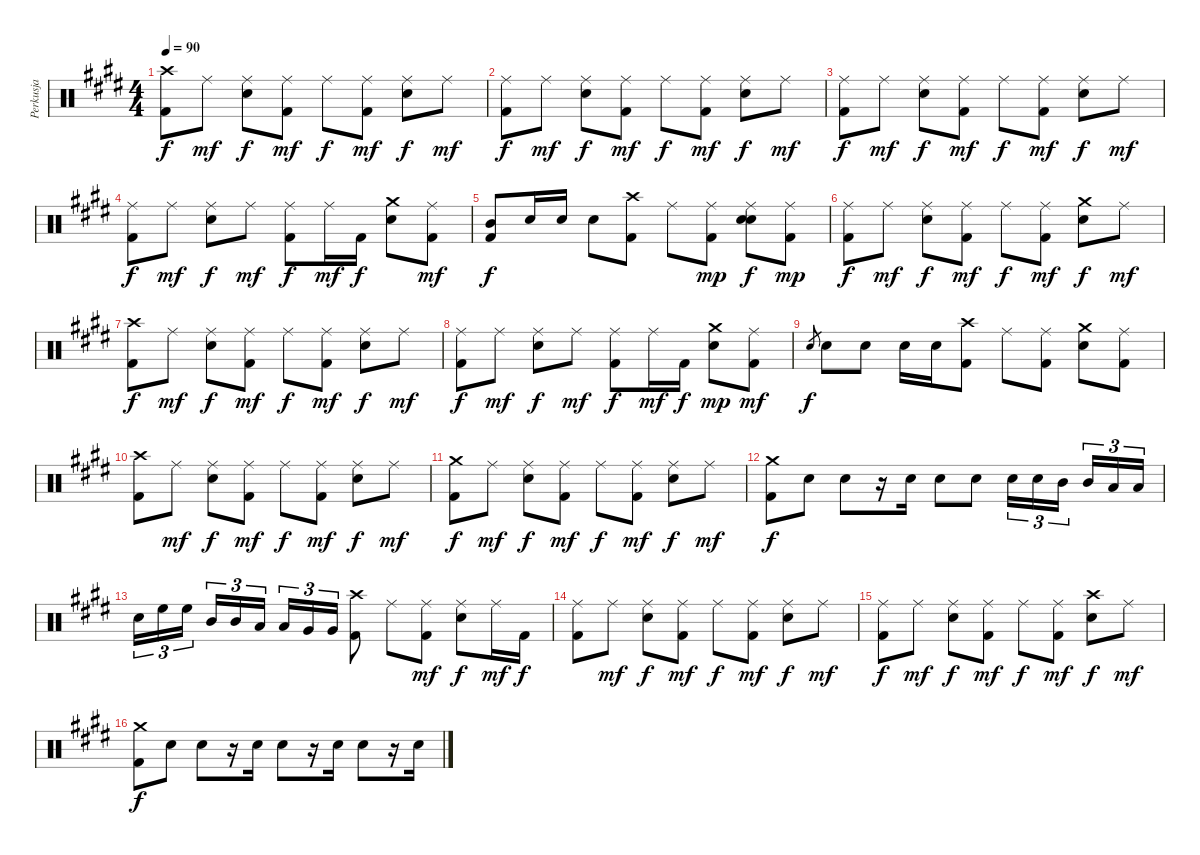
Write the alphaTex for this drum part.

\track ("Perkusja" "Perkusja") {instrument percussion}
\staff {score}
\articulation defaults
\ts (4 4)
\tempo 90
\clef neutral
\ks e
("Crash high (hit)" "Kick (hit) 2").8{dy f} "Ride (middle)".8{dy mf} ("Ride (middle)" "Snare (hit) 2").8{dy f} ("Ride (middle)" "Kick (hit) 2").8{dy mf} "Ride (middle)".8{dy f} ("Ride (middle)" "Kick (hit) 2").8{dy mf} ("Ride (middle)" "Snare (hit) 2").8{dy f} "Ride (middle)".8{dy mf} |
("Ride (middle)" "Kick (hit) 2").8{dy f} "Ride (middle)".8{dy mf} ("Ride (middle)" "Snare (hit) 2").8{dy f} ("Ride (middle)" "Kick (hit) 2").8{dy mf} "Ride (middle)".8{dy f} ("Ride (middle)" "Kick (hit) 2").8{dy mf} ("Ride (middle)" "Snare (hit) 2").8{dy f} "Ride (middle)".8{dy mf} |
("Ride (middle)" "Kick (hit) 2").8{dy f} "Ride (middle)".8{dy mf} ("Ride (middle)" "Snare (hit) 2").8{dy f} ("Ride (middle)" "Kick (hit) 2").8{dy mf} "Ride (middle)".8{dy f} ("Ride (middle)" "Kick (hit) 2").8{dy mf} ("Ride (middle)" "Snare (hit) 2").8{dy f} "Ride (middle)".8{dy mf} |
("Ride (middle)" "Kick (hit) 2").8{dy f} "Ride (middle)".8{dy mf} ("Ride (middle)" "Snare (hit) 2").8{dy f} "Ride (middle)".8{dy mf} ("Ride (middle)" "Kick (hit) 2").8{dy f} "Ride (middle)".16{dy mf} "Kick (hit) 2".16{dy f} ("Crash medium (hit)" "Snare (hit) 2").8 ("Ride (middle)" "Kick (hit) 2").8{dy mf} |
("Mid Tom (hit)" "Kick (hit) 2").8{dy f} "Snare (hit) 2".16 "Snare (hit) 2".16 "Snare (hit) 2".8 ("Crash high (hit)" "Kick (hit) 2").8 "Ride (middle)".8 ("Ride (middle)" "Kick (hit) 2").8{dy mp} ("Ride (middle)" "Snare (hit) 2" "Snare (hit)").8{dy f} ("Ride (middle)" "Kick (hit) 2").8{dy mp} |
("Ride (middle)" "Kick (hit) 2").8{dy f} "Ride (middle)".8{dy mf} ("Ride (middle)" "Snare (hit) 2").8{dy f} ("Ride (middle)" "Kick (hit) 2").8{dy mf} "Ride (middle)".8{dy f} ("Ride (middle)" "Kick (hit) 2").8{dy mf} ("Crash medium (hit)" "Snare (hit) 2").8{dy f} "Ride (middle)".8{dy mf} |
("Crash high (hit)" "Kick (hit) 2").8{dy f} "Ride (middle)".8{dy mf} ("Ride (middle)" "Snare (hit) 2").8{dy f} ("Ride (middle)" "Kick (hit) 2").8{dy mf} "Ride (middle)".8{dy f} ("Ride (middle)" "Kick (hit) 2").8{dy mf} ("Ride (middle)" "Snare (hit) 2").8{dy f} "Ride (middle)".8{dy mf} |
("Ride (middle)" "Kick (hit) 2").8{dy f} "Ride (middle)".8{dy mf} ("Ride (middle)" "Snare (hit) 2").8{dy f} "Ride (middle)".8{dy mf} ("Ride (middle)" "Kick (hit) 2").8{dy f} "Ride (middle)".16{dy mf} "Kick (hit) 2".16{dy f} ("Crash medium (hit)" "Snare (hit) 2").8{dy mp} ("Ride (middle)" "Kick (hit) 2").8{dy mf} |
"Snare (hit) 2".8{gr dy f} "Snare (hit) 2".8 "Snare (hit) 2".8 "Snare (hit) 2".16 "Snare (hit) 2".16 ("Crash high (hit)" "Kick (hit) 2").8 "Ride (middle)".8 ("Ride (middle)" "Kick (hit) 2").8 ("Crash medium (hit)" "Snare (hit) 2").8 ("Ride (middle)" "Kick (hit) 2").8 |
("Crash high (hit)" "Kick (hit) 2").8 "Ride (middle)".8{dy mf} ("Ride (middle)" "Snare (hit) 2").8{dy f} ("Ride (middle)" "Kick (hit) 2").8{dy mf} "Ride (middle)".8{dy f} ("Ride (middle)" "Kick (hit) 2").8{dy mf} ("Ride (middle)" "Snare (hit) 2").8{dy f} "Ride (middle)".8{dy mf} |
("Crash medium (hit)" "Kick (hit) 2").8{dy f} "Ride (middle)".8{dy mf} ("Ride (middle)" "Snare (hit) 2").8{dy f} ("Ride (middle)" "Kick (hit) 2").8{dy mf} "Ride (middle)".8{dy f} ("Ride (middle)" "Kick (hit) 2").8{dy mf} ("Ride (middle)" "Snare (hit) 2").8{dy f} "Ride (middle)".8{dy mf} |
("Crash medium (hit)" "Kick (hit) 2").8{dy f} "Snare (hit) 2".8 "Snare (hit) 2".8 r.16 "Snare (hit) 2".16 "Snare (hit) 2".8 "Snare (hit) 2".8 "Snare (hit) 2".16{tu (3 2)} "Snare (hit) 2".16{tu (3 2)} "Mid Tom (hit)".16{tu (3 2)} "Mid Tom (hit)".16{tu (3 2)} "Low Tom (hit)".16{tu (3 2)} "Low Tom (hit)".16{tu (3 2)} |
"Snare (hit) 2".16{tu (3 2)} "High Floor Tom (hit)".16{tu (3 2)} "High Floor Tom (hit)".16{tu (3 2)} "Mid Tom (hit)".16{tu (3 2)} "Mid Tom (hit)".16{tu (3 2)} "Low Tom (hit)".16{tu (3 2)} "Low Tom (hit)".16{tu (3 2)} "Very Low Tom (hit)".16{tu (3 2)} "Very Low Tom (hit)".16{tu (3 2)} ("Crash high (hit)" "Kick (hit) 2").8 "Ride (middle)".8 ("Ride (middle)" "Kick (hit) 2").8{dy mf} ("Ride (middle)" "Snare (hit) 2").8{dy f} "Ride (middle)".16{dy mf} "Kick (hit) 2".16{dy f} |
("Ride (middle)" "Kick (hit) 2").8 "Ride (middle)".8{dy mf} ("Ride (middle)" "Snare (hit) 2").8{dy f} ("Ride (middle)" "Kick (hit) 2").8{dy mf} "Ride (middle)".8{dy f} ("Ride (middle)" "Kick (hit) 2").8{dy mf} ("Ride (middle)" "Snare (hit) 2").8{dy f} "Ride (middle)".8{dy mf} |
("Ride (middle)" "Kick (hit) 2").8{dy f} "Ride (middle)".8{dy mf} ("Ride (middle)" "Snare (hit) 2").8{dy f} ("Ride (middle)" "Kick (hit) 2").8{dy mf} "Ride (middle)".8{dy f} ("Ride (middle)" "Kick (hit) 2").8{dy mf} ("Crash high (hit)" "Snare (hit) 2").8{dy f} "Ride (middle)".8{dy mf} |
("Crash medium (hit)" "Kick (hit) 2").8{dy f} "Snare (hit) 2".8 "Snare (hit) 2".8 r.16 "Snare (hit) 2".16 "Snare (hit) 2".8 r.16 "Snare (hit) 2".16 "Snare (hit) 2".8 r.16 "Snare (hit) 2".16
